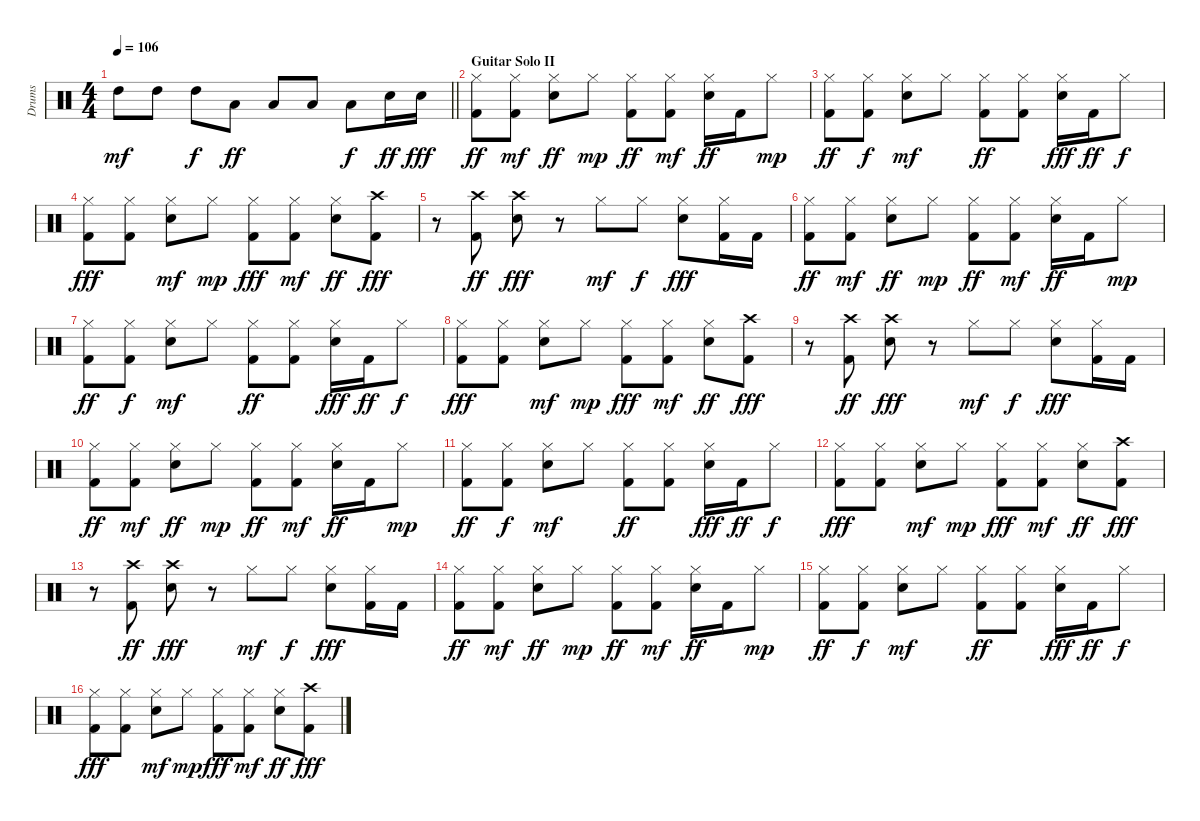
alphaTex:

\track ("Drums" "Drums") {instrument percussion}
\staff {score}
\articulation defaults
\ts (4 4)
\tempo 106
\clef neutral
\barLineRight lightlight
\ks c "High Tom (hit)".8{dy mf} "High Tom (hit)".8 "High Tom (hit)".8{dy f} "Low Tom (hit)".8{dy ff} "Low Tom (hit)".8 "Low Floor Tom (hit)".8 "Low Floor Tom (hit)".8{dy f} "Snare (hit) 2".16{dy ff} "Snare (hit) 2".16{dy fff}
|
\section ("" "Guitar Solo II")
("Kick (hit) 2" "Hi-Hat (closed)").8{dy ff} ("Kick (hit) 2" "Hi-Hat (closed)").8{dy mf} ("Hi-Hat (closed)" "Snare (hit) 2").8{dy ff} "Hi-Hat (closed)".8{dy mp} ("Hi-Hat (closed)" "Kick (hit) 2").8{dy ff} ("Hi-Hat (closed)" "Kick (hit) 2").8{dy mf} ("Hi-Hat (closed)" "Snare (hit) 2").16{dy ff} "Kick (hit) 2".16 "Hi-Hat (closed)".8{dy mp} |
("Kick (hit) 2" "Hi-Hat (closed)").8{dy ff} ("Kick (hit) 2" "Hi-Hat (closed)").8{dy f} ("Snare (hit) 2" "Hi-Hat (closed)").8{dy mf} "Hi-Hat (closed)".8 ("Hi-Hat (closed)" "Kick (hit) 2").8{dy ff} ("Hi-Hat (closed)" "Kick (hit) 2").8 ("Snare (hit) 2" "Hi-Hat (closed)").16{dy fff} "Kick (hit) 2".16{dy ff} "Hi-Hat (closed)".8{dy f} |
("Hi-Hat (closed)" "Kick (hit) 2").8{dy fff} ("Hi-Hat (closed)" "Kick (hit) 2").8 ("Snare (hit) 2" "Hi-Hat (closed)").8{dy mf} "Hi-Hat (closed)".8{dy mp} ("Hi-Hat (closed)" "Kick (hit) 2").8{dy fff} ("Hi-Hat (closed)" "Kick (hit) 2").8{dy mf} ("Hi-Hat (closed)" "Snare (hit) 2").8{dy ff} ("Crash high (hit)" "Kick (hit) 2").8{dy fff} |
r.8 ("Crash high (hit)" "Kick (hit) 2").8{dy ff} ("Crash high (hit)" "Snare (hit) 2").8{dy fff} r.8 "Hi-Hat (closed)".8{dy mf} "Hi-Hat (closed)".8{dy f} ("Snare (hit) 2" "Hi-Hat (closed)").8{dy fff} ("Kick (hit) 2" "Hi-Hat (closed)").16 "Kick (hit) 2".16 |
("Kick (hit) 2" "Hi-Hat (closed)").8{dy ff} ("Kick (hit) 2" "Hi-Hat (closed)").8{dy mf} ("Hi-Hat (closed)" "Snare (hit) 2").8{dy ff} "Hi-Hat (closed)".8{dy mp} ("Hi-Hat (closed)" "Kick (hit) 2").8{dy ff} ("Hi-Hat (closed)" "Kick (hit) 2").8{dy mf} ("Hi-Hat (closed)" "Snare (hit) 2").16{dy ff} "Kick (hit) 2".16 "Hi-Hat (closed)".8{dy mp} |
("Kick (hit) 2" "Hi-Hat (closed)").8{dy ff} ("Kick (hit) 2" "Hi-Hat (closed)").8{dy f} ("Snare (hit) 2" "Hi-Hat (closed)").8{dy mf} "Hi-Hat (closed)".8 ("Hi-Hat (closed)" "Kick (hit) 2").8{dy ff} ("Hi-Hat (closed)" "Kick (hit) 2").8 ("Snare (hit) 2" "Hi-Hat (closed)").16{dy fff} "Kick (hit) 2".16{dy ff} "Hi-Hat (closed)".8{dy f} |
("Hi-Hat (closed)" "Kick (hit) 2").8{dy fff} ("Hi-Hat (closed)" "Kick (hit) 2").8 ("Snare (hit) 2" "Hi-Hat (closed)").8{dy mf} "Hi-Hat (closed)".8{dy mp} ("Hi-Hat (closed)" "Kick (hit) 2").8{dy fff} ("Hi-Hat (closed)" "Kick (hit) 2").8{dy mf} ("Hi-Hat (closed)" "Snare (hit) 2").8{dy ff} ("Crash high (hit)" "Kick (hit) 2").8{dy fff} |
r.8 ("Crash high (hit)" "Kick (hit) 2").8{dy ff} ("Crash high (hit)" "Snare (hit) 2").8{dy fff} r.8 "Hi-Hat (closed)".8{dy mf} "Hi-Hat (closed)".8{dy f} ("Snare (hit) 2" "Hi-Hat (closed)").8{dy fff} ("Kick (hit) 2" "Hi-Hat (closed)").16 "Kick (hit) 2".16 |
("Kick (hit) 2" "Hi-Hat (closed)").8{dy ff} ("Kick (hit) 2" "Hi-Hat (closed)").8{dy mf} ("Hi-Hat (closed)" "Snare (hit) 2").8{dy ff} "Hi-Hat (closed)".8{dy mp} ("Hi-Hat (closed)" "Kick (hit) 2").8{dy ff} ("Hi-Hat (closed)" "Kick (hit) 2").8{dy mf} ("Hi-Hat (closed)" "Snare (hit) 2").16{dy ff} "Kick (hit) 2".16 "Hi-Hat (closed)".8{dy mp} |
("Kick (hit) 2" "Hi-Hat (closed)").8{dy ff} ("Kick (hit) 2" "Hi-Hat (closed)").8{dy f} ("Snare (hit) 2" "Hi-Hat (closed)").8{dy mf} "Hi-Hat (closed)".8 ("Hi-Hat (closed)" "Kick (hit) 2").8{dy ff} ("Hi-Hat (closed)" "Kick (hit) 2").8 ("Snare (hit) 2" "Hi-Hat (closed)").16{dy fff} "Kick (hit) 2".16{dy ff} "Hi-Hat (closed)".8{dy f} |
("Hi-Hat (closed)" "Kick (hit) 2").8{dy fff} ("Hi-Hat (closed)" "Kick (hit) 2").8 ("Snare (hit) 2" "Hi-Hat (closed)").8{dy mf} "Hi-Hat (closed)".8{dy mp} ("Hi-Hat (closed)" "Kick (hit) 2").8{dy fff} ("Hi-Hat (closed)" "Kick (hit) 2").8{dy mf} ("Hi-Hat (closed)" "Snare (hit) 2").8{dy ff} ("Crash high (hit)" "Kick (hit) 2").8{dy fff} |
r.8 ("Crash high (hit)" "Kick (hit) 2").8{dy ff} ("Crash high (hit)" "Snare (hit) 2").8{dy fff} r.8 "Hi-Hat (closed)".8{dy mf} "Hi-Hat (closed)".8{dy f} ("Snare (hit) 2" "Hi-Hat (closed)").8{dy fff} ("Kick (hit) 2" "Hi-Hat (closed)").16 "Kick (hit) 2".16 |
("Kick (hit) 2" "Hi-Hat (closed)").8{dy ff} ("Kick (hit) 2" "Hi-Hat (closed)").8{dy mf} ("Hi-Hat (closed)" "Snare (hit) 2").8{dy ff} "Hi-Hat (closed)".8{dy mp} ("Hi-Hat (closed)" "Kick (hit) 2").8{dy ff} ("Hi-Hat (closed)" "Kick (hit) 2").8{dy mf} ("Hi-Hat (closed)" "Snare (hit) 2").16{dy ff} "Kick (hit) 2".16 "Hi-Hat (closed)".8{dy mp} |
("Kick (hit) 2" "Hi-Hat (closed)").8{dy ff} ("Kick (hit) 2" "Hi-Hat (closed)").8{dy f} ("Snare (hit) 2" "Hi-Hat (closed)").8{dy mf} "Hi-Hat (closed)".8 ("Hi-Hat (closed)" "Kick (hit) 2").8{dy ff} ("Hi-Hat (closed)" "Kick (hit) 2").8 ("Snare (hit) 2" "Hi-Hat (closed)").16{dy fff} "Kick (hit) 2".16{dy ff} "Hi-Hat (closed)".8{dy f} |
("Hi-Hat (closed)" "Kick (hit) 2").8{dy fff volume 9} ("Hi-Hat (closed)" "Kick (hit) 2").8 ("Snare (hit) 2" "Hi-Hat (closed)").8{dy mf} "Hi-Hat (closed)".8{dy mp} ("Hi-Hat (closed)" "Kick (hit) 2").8{dy fff} ("Hi-Hat (closed)" "Kick (hit) 2").8{dy mf} ("Hi-Hat (closed)" "Snare (hit) 2").8{dy ff} ("Crash high (hit)" "Kick (hit) 2").8{dy fff}
